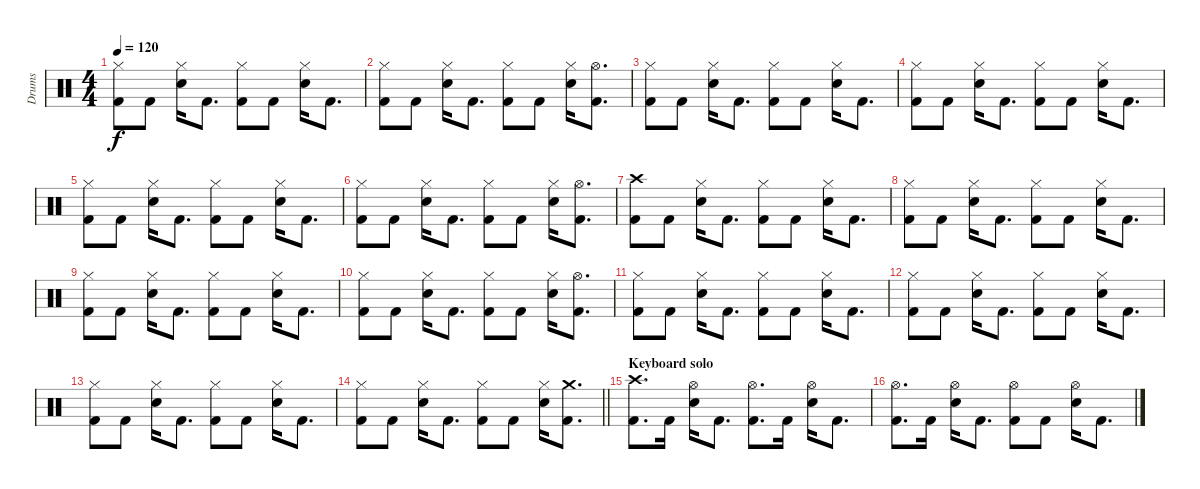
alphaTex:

\track ("Drums" "Drums") {instrument percussion}
\staff {score}
\articulation defaults
\ts (4 4)
\tempo 120
\clef neutral
\ks c
("Hi-Hat (closed)" "Kick (hit) 2").8{dy f} "Kick (hit) 2".8 ("Hi-Hat (closed)" "Snare (hit) 2").16 "Kick (hit) 2".8{d} ("Hi-Hat (closed)" "Kick (hit) 2").8 "Kick (hit) 2".8 ("Hi-Hat (closed)" "Snare (hit) 2").16 "Kick (hit) 2".8{d} |
("Hi-Hat (closed)" "Kick (hit) 2").8 "Kick (hit) 2".8 ("Hi-Hat (closed)" "Snare (hit) 2").16 "Kick (hit) 2".8{d} ("Hi-Hat (closed)" "Kick (hit) 2").8 "Kick (hit) 2".8 ("Hi-Hat (closed)" "Snare (hit) 2").16 ("Hi-Hat (open)" "Kick (hit) 2").8{d} |
("Hi-Hat (closed)" "Kick (hit) 2").8 "Kick (hit) 2".8 ("Hi-Hat (closed)" "Snare (hit) 2").16 "Kick (hit) 2".8{d} ("Hi-Hat (closed)" "Kick (hit) 2").8 "Kick (hit) 2".8 ("Hi-Hat (closed)" "Snare (hit) 2").16 "Kick (hit) 2".8{d} |
("Hi-Hat (closed)" "Kick (hit) 2").8 "Kick (hit) 2".8 ("Hi-Hat (closed)" "Snare (hit) 2").16 "Kick (hit) 2".8{d} ("Hi-Hat (closed)" "Kick (hit) 2").8 "Kick (hit) 2".8 ("Hi-Hat (closed)" "Snare (hit) 2").16 "Kick (hit) 2".8{d} |
("Hi-Hat (closed)" "Kick (hit) 2").8 "Kick (hit) 2".8 ("Hi-Hat (closed)" "Snare (hit) 2").16 "Kick (hit) 2".8{d} ("Hi-Hat (closed)" "Kick (hit) 2").8 "Kick (hit) 2".8 ("Hi-Hat (closed)" "Snare (hit) 2").16 "Kick (hit) 2".8{d} |
("Hi-Hat (closed)" "Kick (hit) 2").8 "Kick (hit) 2".8 ("Hi-Hat (closed)" "Snare (hit) 2").16 "Kick (hit) 2".8{d} ("Hi-Hat (closed)" "Kick (hit) 2").8 "Kick (hit) 2".8 ("Hi-Hat (closed)" "Snare (hit) 2").16 ("Hi-Hat (open)" "Kick (hit) 2").8{d} |
("Crash high (hit)" "Kick (hit) 2").8 "Kick (hit) 2".8 ("Hi-Hat (closed)" "Snare (hit) 2").16 "Kick (hit) 2".8{d} ("Hi-Hat (closed)" "Kick (hit) 2").8 "Kick (hit) 2".8 ("Hi-Hat (closed)" "Snare (hit) 2").16 "Kick (hit) 2".8{d} |
("Hi-Hat (closed)" "Kick (hit) 2").8 "Kick (hit) 2".8 ("Hi-Hat (closed)" "Snare (hit) 2").16 "Kick (hit) 2".8{d} ("Hi-Hat (closed)" "Kick (hit) 2").8 "Kick (hit) 2".8 ("Hi-Hat (closed)" "Snare (hit) 2").16 "Kick (hit) 2".8{d} |
("Hi-Hat (closed)" "Kick (hit) 2").8 "Kick (hit) 2".8 ("Hi-Hat (closed)" "Snare (hit) 2").16 "Kick (hit) 2".8{d} ("Hi-Hat (closed)" "Kick (hit) 2").8 "Kick (hit) 2".8 ("Hi-Hat (closed)" "Snare (hit) 2").16 "Kick (hit) 2".8{d} |
("Hi-Hat (closed)" "Kick (hit) 2").8 "Kick (hit) 2".8 ("Hi-Hat (closed)" "Snare (hit) 2").16 "Kick (hit) 2".8{d} ("Hi-Hat (closed)" "Kick (hit) 2").8 "Kick (hit) 2".8 ("Hi-Hat (closed)" "Snare (hit) 2").16 ("Hi-Hat (open)" "Kick (hit) 2").8{d} |
("Hi-Hat (closed)" "Kick (hit) 2").8 "Kick (hit) 2".8 ("Hi-Hat (closed)" "Snare (hit) 2").16 "Kick (hit) 2".8{d} ("Hi-Hat (closed)" "Kick (hit) 2").8 "Kick (hit) 2".8 ("Hi-Hat (closed)" "Snare (hit) 2").16 "Kick (hit) 2".8{d} |
("Hi-Hat (closed)" "Kick (hit) 2").8 "Kick (hit) 2".8 ("Hi-Hat (closed)" "Snare (hit) 2").16 "Kick (hit) 2".8{d} ("Hi-Hat (closed)" "Kick (hit) 2").8 "Kick (hit) 2".8 ("Hi-Hat (closed)" "Snare (hit) 2").16 "Kick (hit) 2".8{d} |
("Hi-Hat (closed)" "Kick (hit) 2").8 "Kick (hit) 2".8 ("Hi-Hat (closed)" "Snare (hit) 2").16 "Kick (hit) 2".8{d} ("Hi-Hat (closed)" "Kick (hit) 2").8 "Kick (hit) 2".8 ("Hi-Hat (closed)" "Snare (hit) 2").16 "Kick (hit) 2".8{d} |
\barLineRight lightlight
("Hi-Hat (closed)" "Kick (hit) 2").8 "Kick (hit) 2".8 ("Hi-Hat (closed)" "Snare (hit) 2").16 "Kick (hit) 2".8{d} ("Hi-Hat (closed)" "Kick (hit) 2").8 "Kick (hit) 2".8 ("Hi-Hat (closed)" "Snare (hit) 2").16 ("Crash medium (hit)" "Kick (hit) 2").8{d} |
\section ("" "Keyboard solo")
("Crash high (hit)" "Kick (hit) 2").8{d} "Kick (hit) 2".16 ("Hi-Hat (open)" "Electric Snare (hit)").16 "Kick (hit) 2".8{d} ("Hi-Hat (open)" "Kick (hit) 2").8{d} "Kick (hit) 2".16 ("Hi-Hat (open)" "Electric Snare (hit)").16 "Kick (hit) 2".8{d} |
("Hi-Hat (open)" "Kick (hit) 2").8{d} "Kick (hit) 2".16 ("Hi-Hat (open)" "Electric Snare (hit)").16 "Kick (hit) 2".8{d} ("Hi-Hat (open)" "Kick (hit) 2").8 "Kick (hit) 2".8 ("Hi-Hat (open)" "Electric Snare (hit)").16 "Kick (hit) 2".8{d}
